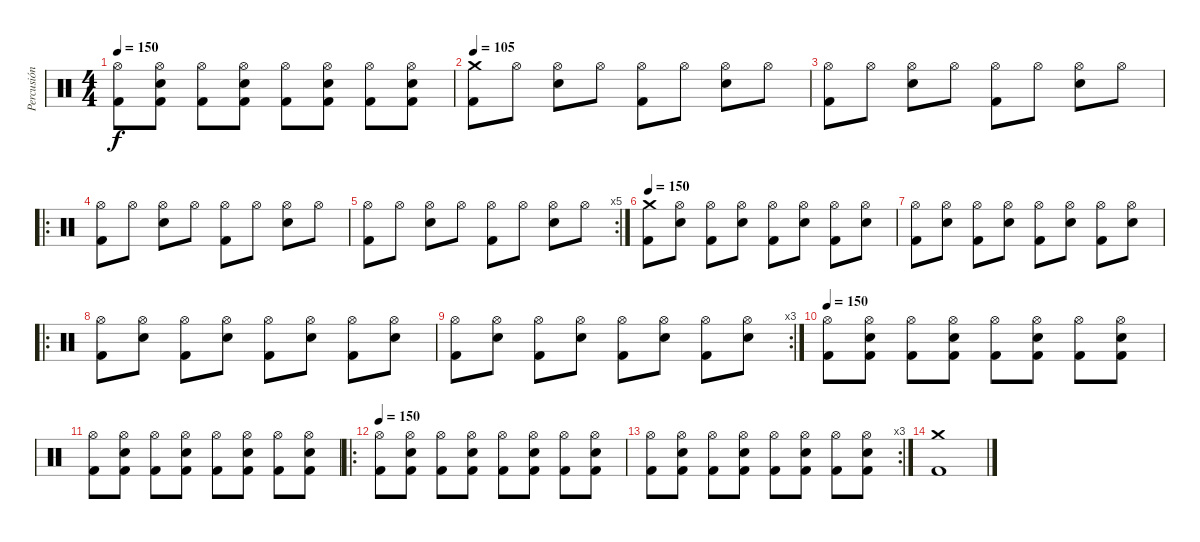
\track ("Percusión" "Percusión") {instrument percussion}
\staff {score}
\articulation defaults
\ts (4 4)
\tempo 150
\clef neutral
\ks c
("Hi-Hat (open)" "Kick (hit) 2").8{dy f} ("Hi-Hat (open)" "Electric Snare (hit)" "Kick (hit) 2").8 ("Hi-Hat (open)" "Kick (hit) 2").8 ("Hi-Hat (open)" "Electric Snare (hit)" "Kick (hit) 2").8 ("Hi-Hat (open)" "Kick (hit) 2").8 ("Hi-Hat (open)" "Electric Snare (hit)" "Kick (hit) 2").8 ("Hi-Hat (open)" "Kick (hit) 2").8 ("Hi-Hat (open)" "Electric Snare (hit)" "Kick (hit) 2").8 |
\tempo 105
("Crash medium (hit)" "Kick (hit) 2").8 "Hi-Hat (open)".8 ("Hi-Hat (open)" "Electric Snare (hit)").8 "Hi-Hat (open)".8 ("Hi-Hat (open)" "Kick (hit) 2").8 "Hi-Hat (open)".8 ("Hi-Hat (open)" "Electric Snare (hit)").8 "Hi-Hat (open)".8 |
("Hi-Hat (open)" "Kick (hit) 2").8 "Hi-Hat (open)".8 ("Hi-Hat (open)" "Electric Snare (hit)").8 "Hi-Hat (open)".8 ("Hi-Hat (open)" "Kick (hit) 2").8 "Hi-Hat (open)".8 ("Hi-Hat (open)" "Electric Snare (hit)").8 "Hi-Hat (open)".8 |
\ro
("Hi-Hat (open)" "Kick (hit) 2").8 "Hi-Hat (open)".8 ("Hi-Hat (open)" "Electric Snare (hit)").8 "Hi-Hat (open)".8 ("Hi-Hat (open)" "Kick (hit) 2").8 "Hi-Hat (open)".8 ("Hi-Hat (open)" "Electric Snare (hit)").8 "Hi-Hat (open)".8 |
\rc 5
("Hi-Hat (open)" "Kick (hit) 2").8 "Hi-Hat (open)".8 ("Hi-Hat (open)" "Electric Snare (hit)").8 "Hi-Hat (open)".8 ("Hi-Hat (open)" "Kick (hit) 2").8 "Hi-Hat (open)".8 ("Hi-Hat (open)" "Electric Snare (hit)").8 "Hi-Hat (open)".8 |
\tempo 150
("Crash medium (hit)" "Kick (hit) 2").8 ("Hi-Hat (open)" "Electric Snare (hit)").8 ("Hi-Hat (open)" "Kick (hit) 2").8 ("Hi-Hat (open)" "Electric Snare (hit)").8 ("Hi-Hat (open)" "Kick (hit) 2").8 ("Hi-Hat (open)" "Electric Snare (hit)").8 ("Hi-Hat (open)" "Kick (hit) 2").8 ("Hi-Hat (open)" "Electric Snare (hit)").8 |
("Hi-Hat (open)" "Kick (hit) 2").8 ("Hi-Hat (open)" "Electric Snare (hit)").8 ("Hi-Hat (open)" "Kick (hit) 2").8 ("Hi-Hat (open)" "Electric Snare (hit)").8 ("Hi-Hat (open)" "Kick (hit) 2").8 ("Hi-Hat (open)" "Electric Snare (hit)").8 ("Hi-Hat (open)" "Kick (hit) 2").8 ("Hi-Hat (open)" "Electric Snare (hit)").8 |
\ro
("Hi-Hat (open)" "Kick (hit) 2").8 ("Hi-Hat (open)" "Electric Snare (hit)").8 ("Hi-Hat (open)" "Kick (hit) 2").8 ("Hi-Hat (open)" "Electric Snare (hit)").8 ("Hi-Hat (open)" "Kick (hit) 2").8 ("Hi-Hat (open)" "Electric Snare (hit)").8 ("Hi-Hat (open)" "Kick (hit) 2").8 ("Hi-Hat (open)" "Electric Snare (hit)").8 |
\rc 3
("Hi-Hat (open)" "Kick (hit) 2").8 ("Hi-Hat (open)" "Electric Snare (hit)").8 ("Hi-Hat (open)" "Kick (hit) 2").8 ("Hi-Hat (open)" "Electric Snare (hit)").8 ("Hi-Hat (open)" "Kick (hit) 2").8 ("Hi-Hat (open)" "Electric Snare (hit)").8 ("Hi-Hat (open)" "Kick (hit) 2").8 ("Hi-Hat (open)" "Electric Snare (hit)").8 |
\tempo 150
("Hi-Hat (open)" "Kick (hit) 2").8 ("Hi-Hat (open)" "Electric Snare (hit)" "Kick (hit) 2").8 ("Hi-Hat (open)" "Kick (hit) 2").8 ("Hi-Hat (open)" "Electric Snare (hit)" "Kick (hit) 2").8 ("Hi-Hat (open)" "Kick (hit) 2").8 ("Hi-Hat (open)" "Electric Snare (hit)" "Kick (hit) 2").8 ("Hi-Hat (open)" "Kick (hit) 2").8 ("Hi-Hat (open)" "Electric Snare (hit)" "Kick (hit) 2").8 |
("Hi-Hat (open)" "Kick (hit) 2").8 ("Hi-Hat (open)" "Electric Snare (hit)" "Kick (hit) 2").8 ("Hi-Hat (open)" "Kick (hit) 2").8 ("Hi-Hat (open)" "Electric Snare (hit)" "Kick (hit) 2").8 ("Hi-Hat (open)" "Kick (hit) 2").8 ("Hi-Hat (open)" "Electric Snare (hit)" "Kick (hit) 2").8 ("Hi-Hat (open)" "Kick (hit) 2").8 ("Hi-Hat (open)" "Electric Snare (hit)" "Kick (hit) 2").8 |
\ro
\tempo 150
("Hi-Hat (open)" "Kick (hit) 2").8 ("Hi-Hat (open)" "Electric Snare (hit)" "Kick (hit) 2").8 ("Hi-Hat (open)" "Kick (hit) 2").8 ("Hi-Hat (open)" "Electric Snare (hit)" "Kick (hit) 2").8 ("Hi-Hat (open)" "Kick (hit) 2").8 ("Hi-Hat (open)" "Electric Snare (hit)" "Kick (hit) 2").8 ("Hi-Hat (open)" "Kick (hit) 2").8 ("Hi-Hat (open)" "Electric Snare (hit)" "Kick (hit) 2").8 |
\rc 3
("Hi-Hat (open)" "Kick (hit) 2").8 ("Hi-Hat (open)" "Electric Snare (hit)" "Kick (hit) 2").8 ("Hi-Hat (open)" "Kick (hit) 2").8 ("Hi-Hat (open)" "Electric Snare (hit)" "Kick (hit) 2").8 ("Hi-Hat (open)" "Kick (hit) 2").8 ("Hi-Hat (open)" "Electric Snare (hit)" "Kick (hit) 2").8 ("Hi-Hat (open)" "Kick (hit) 2").8 ("Hi-Hat (open)" "Electric Snare (hit)" "Kick (hit) 2").8 |
("Crash medium (hit)" "Kick (hit) 2").1
